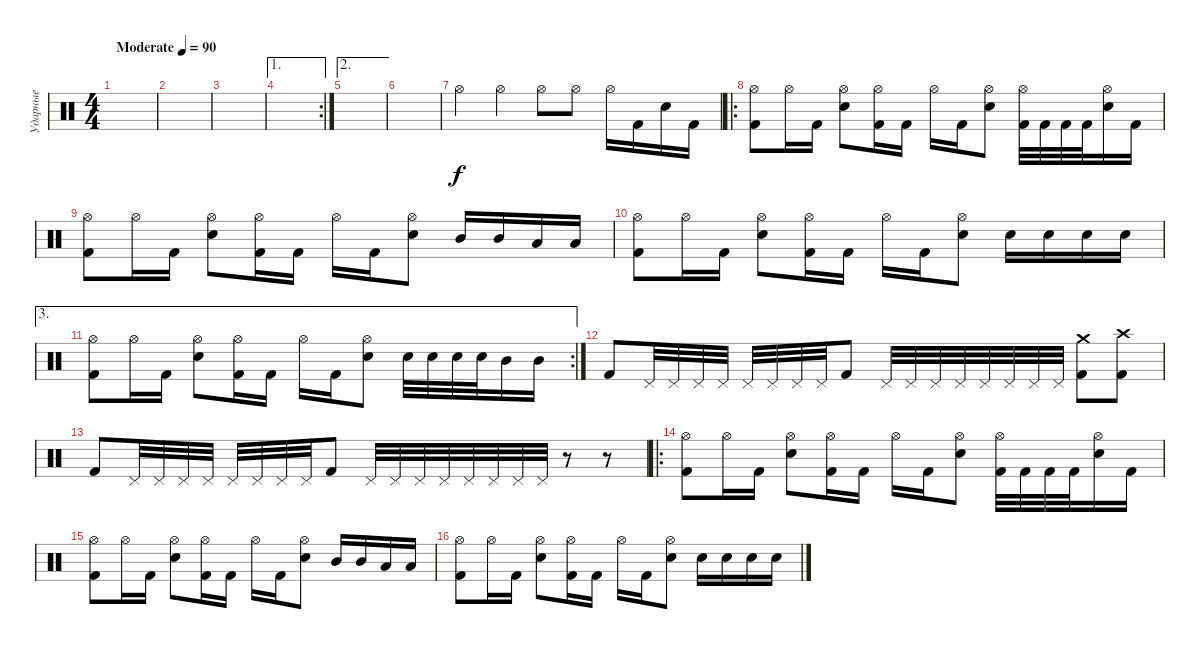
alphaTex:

\track ("Ударные" "Ударные") {instrument percussion}
\staff {score}
\articulation defaults
\ts (4 4)
\tempo (90 "Moderate")
\clef neutral
\ks c
|
|
|
\ae 1
\rc 2
|
\ae 2
|
|
"Hi-Hat (open)".4 "Hi-Hat (open)".4 "Hi-Hat (open)".8 "Hi-Hat (open)".8 "Hi-Hat (open)".16 "Kick (hit) 2".16 "Electric Snare (hit)".16 "Kick (hit) 2".16 |
\ro
("Kick (hit) 2" "Hi-Hat (open)").8 "Hi-Hat (open)".16 "Kick (hit) 2".16 ("Electric Snare (hit)" "Hi-Hat (open)").8 ("Hi-Hat (open)" "Kick (hit) 2").16 "Kick (hit) 2".16 "Hi-Hat (open)".16 "Kick (hit) 2".16 ("Hi-Hat (open)" "Electric Snare (hit)").8 ("Kick (hit) 2" "Hi-Hat (open)").32 "Kick (hit) 2".32 "Kick (hit) 2".32 "Kick (hit) 2".32 ("Electric Snare (hit)" "Hi-Hat (open)").16 "Kick (hit) 2".16 |
("Kick (hit) 2" "Hi-Hat (open)").8 "Hi-Hat (open)".16 "Kick (hit) 2".16 ("Electric Snare (hit)" "Hi-Hat (open)").8 ("Hi-Hat (open)" "Kick (hit) 2").16 "Kick (hit) 2".16 "Hi-Hat (open)".16 "Kick (hit) 2".16 ("Hi-Hat (open)" "Electric Snare (hit)").8 "Mid Tom (hit)".16 "Mid Tom (hit)".16 "Low Tom (hit)".16 "Low Tom (hit)".16 |
("Kick (hit) 2" "Hi-Hat (open)").8 "Hi-Hat (open)".16 "Kick (hit) 2".16 ("Electric Snare (hit)" "Hi-Hat (open)").8 ("Hi-Hat (open)" "Kick (hit) 2").16 "Kick (hit) 2".16 "Hi-Hat (open)".16 "Kick (hit) 2".16 ("Hi-Hat (open)" "Electric Snare (hit)").8 "Electric Snare (hit)".16 "Electric Snare (hit)".16 "Electric Snare (hit)".16 "Electric Snare (hit)".16 |
\ae 3
\rc 2
("Kick (hit) 2" "Hi-Hat (open)").8 "Hi-Hat (open)".16 "Kick (hit) 2".16 ("Electric Snare (hit)" "Hi-Hat (open)").8 ("Hi-Hat (open)" "Kick (hit) 2").16 "Kick (hit) 2".16 "Hi-Hat (open)".16 "Kick (hit) 2".16 ("Hi-Hat (open)" "Electric Snare (hit)").8 "Electric Snare (hit)".32 "Electric Snare (hit)".32 "Electric Snare (hit)".32 "Electric Snare (hit)".32 "Mid Tom (hit)".16 "Mid Tom (hit)".16 |
"Kick (hit) 2".8 "Pedal Hi-Hat (hit)".32 "Pedal Hi-Hat (hit)".32 "Pedal Hi-Hat (hit)".32 "Pedal Hi-Hat (hit)".32 "Pedal Hi-Hat (hit)".32 "Pedal Hi-Hat (hit)".32 "Pedal Hi-Hat (hit)".32 "Pedal Hi-Hat (hit)".32 "Kick (hit) 2".8 "Pedal Hi-Hat (hit)".32 "Pedal Hi-Hat (hit)".32 "Pedal Hi-Hat (hit)".32 "Pedal Hi-Hat (hit)".32 "Pedal Hi-Hat (hit)".32 "Pedal Hi-Hat (hit)".32 "Pedal Hi-Hat (hit)".32 "Pedal Hi-Hat (hit)".32 ("Kick (hit) 2" "Crash medium (hit)").8 ("Kick (hit) 2" "Crash high (hit)").8 |
"Kick (hit) 2".8 "Pedal Hi-Hat (hit)".32 "Pedal Hi-Hat (hit)".32 "Pedal Hi-Hat (hit)".32 "Pedal Hi-Hat (hit)".32 "Pedal Hi-Hat (hit)".32 "Pedal Hi-Hat (hit)".32 "Pedal Hi-Hat (hit)".32 "Pedal Hi-Hat (hit)".32 "Kick (hit) 2".8 "Pedal Hi-Hat (hit)".32 "Pedal Hi-Hat (hit)".32 "Pedal Hi-Hat (hit)".32 "Pedal Hi-Hat (hit)".32 "Pedal Hi-Hat (hit)".32 "Pedal Hi-Hat (hit)".32 "Pedal Hi-Hat (hit)".32 "Pedal Hi-Hat (hit)".32 r.8 r.8 |
\ro
("Kick (hit) 2" "Hi-Hat (open)").8 "Hi-Hat (open)".16 "Kick (hit) 2".16 ("Electric Snare (hit)" "Hi-Hat (open)").8 ("Hi-Hat (open)" "Kick (hit) 2").16 "Kick (hit) 2".16 "Hi-Hat (open)".16 "Kick (hit) 2".16 ("Hi-Hat (open)" "Electric Snare (hit)").8 ("Kick (hit) 2" "Hi-Hat (open)").32 "Kick (hit) 2".32 "Kick (hit) 2".32 "Kick (hit) 2".32 ("Electric Snare (hit)" "Hi-Hat (open)").16 "Kick (hit) 2".16 |
("Kick (hit) 2" "Hi-Hat (open)").8 "Hi-Hat (open)".16 "Kick (hit) 2".16 ("Electric Snare (hit)" "Hi-Hat (open)").8 ("Hi-Hat (open)" "Kick (hit) 2").16 "Kick (hit) 2".16 "Hi-Hat (open)".16 "Kick (hit) 2".16 ("Hi-Hat (open)" "Electric Snare (hit)").8 "Mid Tom (hit)".16 "Mid Tom (hit)".16 "Low Tom (hit)".16 "Low Tom (hit)".16 |
("Kick (hit) 2" "Hi-Hat (open)").8 "Hi-Hat (open)".16 "Kick (hit) 2".16 ("Electric Snare (hit)" "Hi-Hat (open)").8 ("Hi-Hat (open)" "Kick (hit) 2").16 "Kick (hit) 2".16 "Hi-Hat (open)".16 "Kick (hit) 2".16 ("Hi-Hat (open)" "Electric Snare (hit)").8 "Electric Snare (hit)".16 "Electric Snare (hit)".16 "Electric Snare (hit)".16 "Electric Snare (hit)".16
